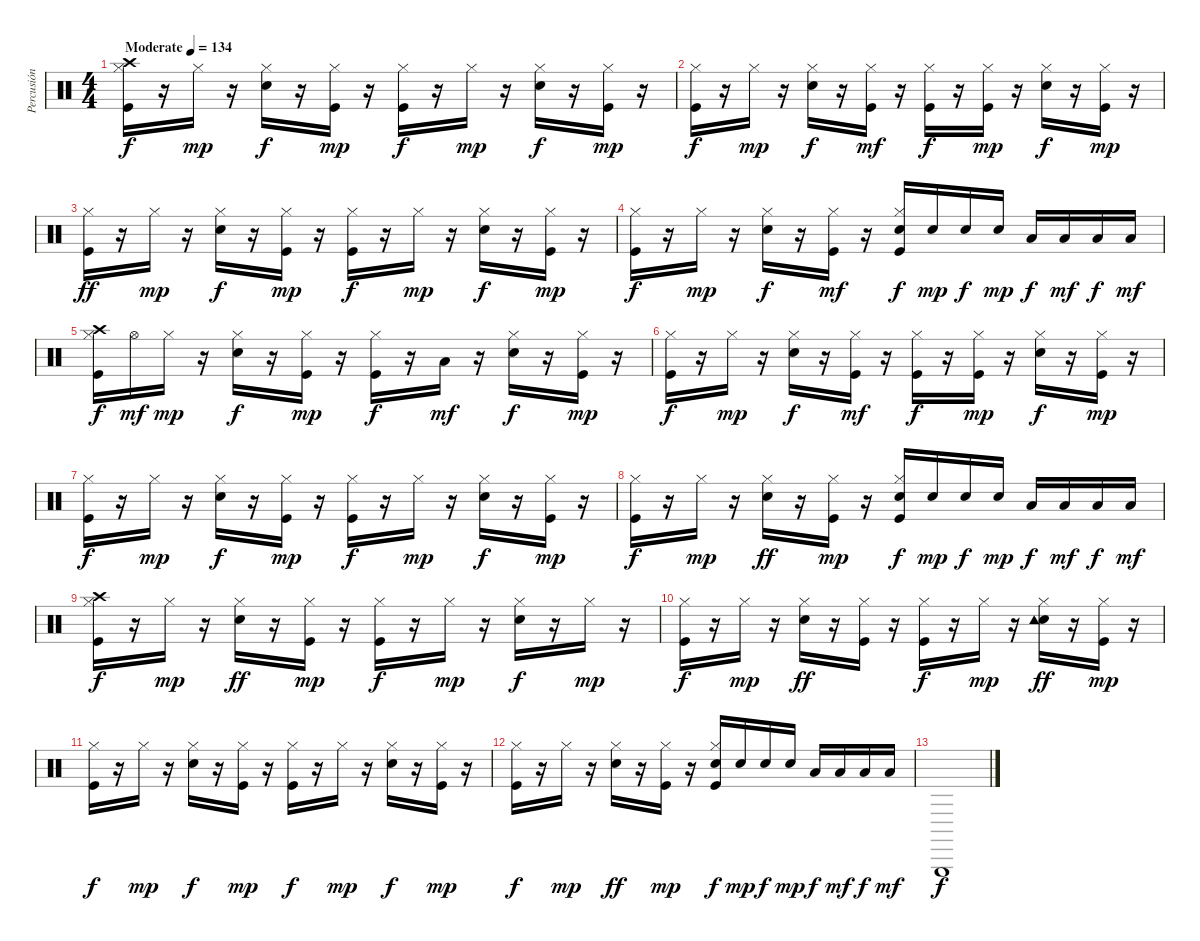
\track ("Percusión" "Percusión") {instrument percussion}
\staff {score}
\articulation defaults
\ts (4 4)
\tempo (134 "Moderate")
\clef neutral
\ks c
("Kick (hit)" "Hi-Hat (closed)" "Crash high (hit)").16{dy f} r.16 "Hi-Hat (closed)".16{dy mp} r.16 ("Snare (hit) 2" "Hi-Hat (closed)").16{dy f} r.16 ("Kick (hit)" "Hi-Hat (closed)").16{dy mp} r.16 ("Kick (hit)" "Hi-Hat (closed)").16{dy f} r.16 "Hi-Hat (closed)".16{dy mp} r.16 ("Snare (hit) 2" "Hi-Hat (closed)").16{dy f} r.16 ("Kick (hit)" "Hi-Hat (closed)").16{dy mp} r.16 |
("Kick (hit)" "Hi-Hat (closed)").16{dy f} r.16 "Hi-Hat (closed)".16{dy mp} r.16 ("Snare (hit) 2" "Hi-Hat (closed)").16{dy f} r.16 ("Kick (hit)" "Hi-Hat (closed)").16{dy mf} r.16 ("Kick (hit)" "Hi-Hat (closed)").16{dy f} r.16 ("Kick (hit)" "Hi-Hat (closed)").16{dy mp} r.16 ("Snare (hit) 2" "Hi-Hat (closed)").16{dy f} r.16 ("Kick (hit)" "Hi-Hat (closed)").16{dy mp} r.16 |
("Kick (hit)" "Hi-Hat (closed)").16{dy ff} r.16 "Hi-Hat (closed)".16{dy mp} r.16 ("Snare (hit) 2" "Hi-Hat (closed)").16{dy f} r.16 ("Kick (hit)" "Hi-Hat (closed)").16{dy mp} r.16 ("Kick (hit)" "Hi-Hat (closed)").16{dy f} r.16 "Hi-Hat (closed)".16{dy mp} r.16 ("Snare (hit) 2" "Hi-Hat (closed)").16{dy f} r.16 ("Kick (hit)" "Hi-Hat (closed)").16{dy mp} r.16 |
("Kick (hit)" "Hi-Hat (closed)").16{dy f} r.16 "Hi-Hat (closed)".16{dy mp} r.16 ("Snare (hit) 2" "Hi-Hat (closed)").16{dy f} r.16 ("Kick (hit)" "Hi-Hat (closed)").16{dy mf} r.16 ("Kick (hit)" "Snare (hit) 2" "Hi-Hat (closed)").16{dy f} "Snare (hit) 2".16{dy mp} "Snare (hit) 2".16{dy f} "Snare (hit) 2".16{dy mp} "Low Tom (hit)".16{dy f} "Low Tom (hit)".16{dy mf} "Low Tom (hit)".16{dy f} "Low Tom (hit)".16{dy mf} |
("Kick (hit)" "Hi-Hat (closed)" "Crash high (hit)").16{dy f} "Hi-Hat (open)".16{dy mf} "Hi-Hat (closed)".16{dy mp} r.16 ("Snare (hit) 2" "Hi-Hat (closed)").16{dy f} r.16 ("Kick (hit)" "Hi-Hat (closed)").16{dy mp} r.16 ("Kick (hit)" "Hi-Hat (closed)").16{dy f} r.16 "Low Floor Tom (hit)".16{dy mf} r.16 ("Snare (hit) 2" "Hi-Hat (closed)").16{dy f} r.16 ("Kick (hit)" "Hi-Hat (closed)").16{dy mp} r.16 |
("Kick (hit)" "Hi-Hat (closed)").16{dy f} r.16 "Hi-Hat (closed)".16{dy mp} r.16 ("Snare (hit) 2" "Hi-Hat (closed)").16{dy f} r.16 ("Kick (hit)" "Hi-Hat (closed)").16{dy mf} r.16 ("Kick (hit)" "Hi-Hat (closed)").16{dy f} r.16 ("Kick (hit)" "Hi-Hat (closed)").16{dy mp} r.16 ("Snare (hit) 2" "Hi-Hat (closed)").16{dy f} r.16 ("Kick (hit)" "Hi-Hat (closed)").16{dy mp} r.16 |
("Kick (hit)" "Hi-Hat (closed)").16{dy f} r.16 "Hi-Hat (closed)".16{dy mp} r.16 ("Snare (hit) 2" "Hi-Hat (closed)").16{dy f} r.16 ("Kick (hit)" "Hi-Hat (closed)").16{dy mp} r.16 ("Kick (hit)" "Hi-Hat (closed)").16{dy f} r.16 "Hi-Hat (closed)".16{dy mp} r.16 ("Snare (hit) 2" "Hi-Hat (closed)").16{dy f} r.16 ("Kick (hit)" "Hi-Hat (closed)").16{dy mp} r.16 |
("Kick (hit)" "Hi-Hat (closed)").16{dy f} r.16 "Hi-Hat (closed)".16{dy mp} r.16 ("Snare (hit) 2" "Hi-Hat (closed)").16{dy ff} r.16 ("Kick (hit)" "Hi-Hat (closed)").16{dy mp} r.16 ("Kick (hit)" "Snare (hit) 2" "Hi-Hat (closed)").16{dy f} "Snare (hit) 2".16{dy mp} "Snare (hit) 2".16{dy f} "Snare (hit) 2".16{dy mp} "Low Tom (hit)".16{dy f} "Low Tom (hit)".16{dy mf} "Low Tom (hit)".16{dy f} "Low Tom (hit)".16{dy mf} |
("Kick (hit)" "Hi-Hat (closed)" "Crash high (hit)").16{dy f} r.16 "Hi-Hat (closed)".16{dy mp} r.16 ("Snare (hit) 2" "Hi-Hat (closed)").16{dy ff} r.16 ("Kick (hit)" "Hi-Hat (closed)").16{dy mp} r.16 ("Kick (hit)" "Hi-Hat (closed)").16{dy f} r.16 "Hi-Hat (closed)".16{dy mp} r.16 ("Snare (hit) 2" "Hi-Hat (closed)").16{dy f} r.16 "Hi-Hat (closed)".16{dy mp} r.16 |
("Kick (hit)" "Hi-Hat (closed)").16{dy f} r.16 "Hi-Hat (closed)".16{dy mp} r.16 ("Snare (hit) 2" "Hi-Hat (closed)").16{dy ff} r.16 ("Kick (hit)" "Hi-Hat (closed)").16 r.16 ("Kick (hit)" "Hi-Hat (closed)").16{dy f} r.16 "Hi-Hat (closed)".16{dy mp} r.16 ("Snare (hit) 2" "Hi-Hat (closed)" "Tambourine (hit)").16{dy ff} r.16 ("Kick (hit)" "Hi-Hat (closed)").16{dy mp} r.16 |
("Kick (hit)" "Hi-Hat (closed)").16{dy f} r.16 "Hi-Hat (closed)".16{dy mp} r.16 ("Snare (hit) 2" "Hi-Hat (closed)").16{dy f} r.16 ("Kick (hit)" "Hi-Hat (closed)").16{dy mp} r.16 ("Kick (hit)" "Hi-Hat (closed)").16{dy f} r.16 "Hi-Hat (closed)".16{dy mp} r.16 ("Snare (hit) 2" "Hi-Hat (closed)").16{dy f} r.16 ("Kick (hit)" "Hi-Hat (closed)").16{dy mp} r.16 |
("Kick (hit)" "Hi-Hat (closed)").16{dy f} r.16 "Hi-Hat (closed)".16{dy mp} r.16 ("Snare (hit) 2" "Hi-Hat (closed)").16{dy ff} r.16 ("Kick (hit)" "Hi-Hat (closed)").16{dy mp} r.16 ("Kick (hit)" "Snare (hit) 2" "Hi-Hat (closed)").16{dy f} "Snare (hit) 2".16{dy mp} "Snare (hit) 2".16{dy f} "Snare (hit) 2".16{dy mp} "Low Tom (hit)".16{dy f} "Low Tom (hit)".16{dy mf} "Low Tom (hit)".16{dy f} "Low Tom (hit)".16{dy mf} |
"Triangle (hit)".1{dy f}
